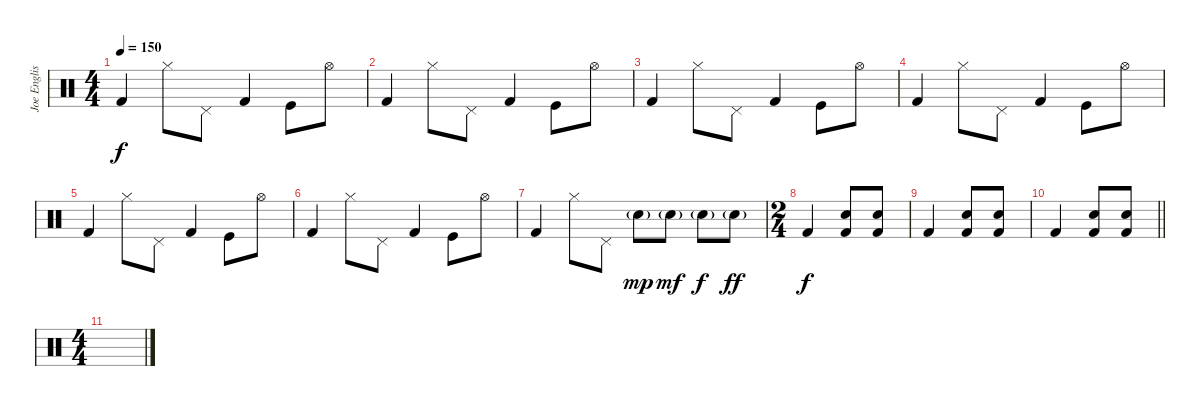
\track ("Joe English" "Joe Englis") {instrument percussion}
\staff {score}
\articulation defaults
\ts (4 4)
\tempo 150
\clef neutral
\ks c "Kick (hit) 2".4{dy f} "Hi-Hat (closed)".8 "Pedal Hi-Hat (hit)".8 "Kick (hit) 2".4 "Kick (hit)".8 "Hi-Hat (open)".8
|
"Kick (hit) 2".4 "Hi-Hat (closed)".8 "Pedal Hi-Hat (hit)".8 "Kick (hit) 2".4 "Kick (hit)".8 "Hi-Hat (open)".8 |
"Kick (hit) 2".4 "Hi-Hat (closed)".8 "Pedal Hi-Hat (hit)".8 "Kick (hit) 2".4 "Kick (hit)".8 "Hi-Hat (open)".8 |
"Kick (hit) 2".4 "Hi-Hat (closed)".8 "Pedal Hi-Hat (hit)".8 "Kick (hit) 2".4 "Kick (hit)".8 "Hi-Hat (open)".8 |
"Kick (hit) 2".4 "Hi-Hat (closed)".8 "Pedal Hi-Hat (hit)".8 "Kick (hit) 2".4 "Kick (hit)".8 "Hi-Hat (open)".8 |
"Kick (hit) 2".4 "Hi-Hat (closed)".8 "Pedal Hi-Hat (hit)".8 "Kick (hit) 2".4 "Kick (hit)".8 "Hi-Hat (open)".8 |
"Kick (hit) 2".4 "Hi-Hat (closed)".8 "Pedal Hi-Hat (hit)".8 "Snare (hit) 2"{g}.8{dy mp} "Snare (hit) 2"{g}.8{dy mf} "Snare (hit) 2"{g}.8{dy f} "Snare (hit) 2"{g}.8{dy ff} |
\ts (2 4)
"Kick (hit) 2".4{dy f} ("Kick (hit) 2" "Snare (hit) 2").8 ("Kick (hit) 2" "Snare (hit) 2").8 |
"Kick (hit) 2".4 ("Kick (hit) 2" "Snare (hit) 2").8 ("Kick (hit) 2" "Snare (hit) 2").8 |
\barLineRight lightlight "Kick (hit) 2".4
("Kick (hit) 2" "Snare (hit) 2").8 ("Kick (hit) 2" "Snare (hit) 2").8 |
\ts (4 4)
